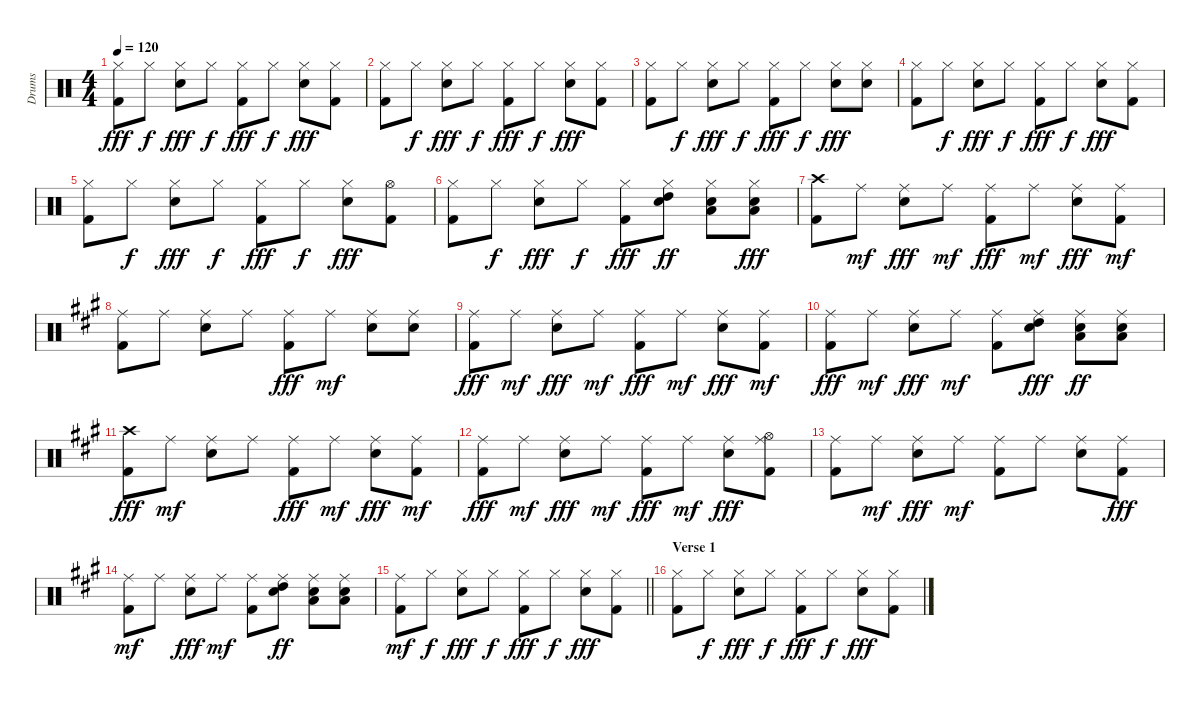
\track ("Drums" "Drums") {instrument percussion}
\staff {score}
\articulation defaults
\ts (4 4)
\tempo 120
\clef neutral
\ks c
("Kick (hit) 2" "Hi-Hat (closed)").8{dy fff} "Hi-Hat (closed)".8{dy f} ("Snare (hit) 2" "Hi-Hat (closed)").8{dy fff} "Hi-Hat (closed)".8{dy f} ("Hi-Hat (closed)" "Kick (hit) 2").8{dy fff} "Hi-Hat (closed)".8{dy f} ("Snare (hit) 2" "Hi-Hat (closed)").8{dy fff} ("Kick (hit) 2" "Hi-Hat (closed)").8 |
("Kick (hit) 2" "Hi-Hat (closed)").8 "Hi-Hat (closed)".8{dy f} ("Hi-Hat (closed)" "Snare (hit) 2").8{dy fff} "Hi-Hat (closed)".8{dy f} ("Kick (hit) 2" "Hi-Hat (closed)").8{dy fff} "Hi-Hat (closed)".8{dy f} ("Hi-Hat (closed)" "Snare (hit) 2").8{dy fff} ("Kick (hit) 2" "Hi-Hat (closed)").8 |
("Kick (hit) 2" "Hi-Hat (closed)").8 "Hi-Hat (closed)".8{dy f} ("Hi-Hat (closed)" "Snare (hit) 2").8{dy fff} "Hi-Hat (closed)".8{dy f} ("Kick (hit) 2" "Hi-Hat (closed)").8{dy fff} "Hi-Hat (closed)".8{dy f} ("Snare (hit) 2" "Hi-Hat (closed)").8{dy fff} ("Hi-Hat (closed)" "Snare (hit) 2").8 |
("Kick (hit) 2" "Hi-Hat (closed)").8 "Hi-Hat (closed)".8{dy f} ("Snare (hit) 2" "Hi-Hat (closed)").8{dy fff} "Hi-Hat (closed)".8{dy f} ("Kick (hit) 2" "Hi-Hat (closed)").8{dy fff} "Hi-Hat (closed)".8{dy f} ("Snare (hit) 2" "Hi-Hat (closed)").8{dy fff} ("Hi-Hat (closed)" "Kick (hit) 2").8 |
("Kick (hit) 2" "Hi-Hat (closed)").8 "Hi-Hat (closed)".8{dy f} ("Snare (hit) 2" "Hi-Hat (closed)").8{dy fff} "Hi-Hat (closed)".8{dy f} ("Hi-Hat (closed)" "Kick (hit) 2").8{dy fff} "Hi-Hat (closed)".8{dy f} ("Snare (hit) 2" "Hi-Hat (closed)").8{dy fff} ("Kick (hit) 2" "Hi-Hat (open)").8 |
("Kick (hit) 2" "Hi-Hat (closed)").8 "Hi-Hat (closed)".8{dy f} ("Hi-Hat (closed)" "Snare (hit) 2").8{dy fff} "Hi-Hat (closed)".8{dy f} ("Hi-Hat (closed)" "Kick (hit) 2").8{dy fff} ("Snare (hit) 2" "Hi-Hat (closed)" "High Tom (hit)").8{dy ff} ("Hi-Hat (closed)" "Snare (hit) 2" "Low Tom (hit)").8 ("Low Floor Tom (hit)" "Snare (hit) 2" "Hi-Hat (closed)").8{dy fff} |
("Crash high (hit)" "Kick (hit) 2").8 "Ride (middle)".8{dy mf} ("Ride (middle)" "Snare (hit) 2").8{dy fff} "Ride (middle)".8{dy mf} ("Ride (middle)" "Kick (hit) 2").8{dy fff} "Ride (middle)".8{dy mf} ("Ride (middle)" "Snare (hit) 2").8{dy fff} ("Kick (hit) 2" "Ride (middle)").8{dy mf} |
\ks a
("Kick (hit) 2" "Ride (middle)").8 "Ride (middle)".8 ("Snare (hit) 2" "Ride (middle)").8 "Ride (middle)".8 ("Ride (middle)" "Kick (hit) 2").8{dy fff} "Ride (middle)".8{dy mf} ("Snare (hit) 2" "Ride (middle)").8 ("Snare (hit) 2" "Ride (middle)").8 |
("Ride (middle)" "Kick (hit) 2").8{dy fff} "Ride (middle)".8{dy mf} ("Ride (middle)" "Snare (hit) 2").8{dy fff} "Ride (middle)".8{dy mf} ("Ride (middle)" "Kick (hit) 2").8{dy fff} "Ride (middle)".8{dy mf} ("Ride (middle)" "Snare (hit) 2").8{dy fff} ("Kick (hit) 2" "Ride (middle)").8{dy mf} |
("Ride (middle)" "Kick (hit) 2").8{dy fff} "Ride (middle)".8{dy mf} ("Ride (middle)" "Snare (hit) 2").8{dy fff} "Ride (middle)".8{dy mf} ("Kick (hit) 2" "Ride (middle)").8 ("Ride (middle)" "High Tom (hit)" "Snare (hit) 2").8{dy fff} ("Snare (hit) 2" "Ride (middle)" "Low Tom (hit)").8{dy ff} ("Snare (hit) 2" "Ride (middle)" "Low Floor Tom (hit)").8 |
("Kick (hit) 2" "Crash high (hit)").8{dy fff} "Ride (middle)".8{dy mf} ("Snare (hit) 2" "Ride (middle)").8 "Ride (middle)".8 ("Ride (middle)" "Kick (hit) 2").8{dy fff} "Ride (middle)".8{dy mf} ("Ride (middle)" "Snare (hit) 2").8{dy fff} ("Kick (hit) 2" "Ride (middle)").8{dy mf} |
("Ride (middle)" "Kick (hit) 2").8{dy fff} "Ride (middle)".8{dy mf} ("Ride (middle)" "Snare (hit) 2").8{dy fff} "Ride (middle)".8{dy mf} ("Ride (middle)" "Kick (hit) 2").8{dy fff} "Ride (middle)".8{dy mf} ("Ride (middle)" "Snare (hit) 2").8{dy fff} ("Ride (middle)" "Hi-Hat (open)" "Kick (hit) 2").8 |
("Ride (middle)" "Kick (hit) 2").8 "Ride (middle)".8{dy mf} ("Ride (middle)" "Snare (hit) 2").8{dy fff} "Ride (middle)".8{dy mf} ("Kick (hit) 2" "Ride (middle)").8 "Ride (middle)".8 ("Snare (hit) 2" "Ride (middle)").8 ("Ride (middle)" "Kick (hit) 2").8{dy fff} |
("Kick (hit) 2" "Ride (middle)").8{dy mf} "Ride (middle)".8 ("Ride (middle)" "Snare (hit) 2").8{dy fff} "Ride (middle)".8{dy mf} ("Kick (hit) 2" "Ride (middle)").8 ("Snare (hit) 2" "Ride (middle)" "High Tom (hit)").8{dy ff} ("Ride (middle)" "Snare (hit) 2" "Low Tom (hit)").8 ("Ride (middle)" "Snare (hit) 2" "Low Floor Tom (hit)").8 |
\barLineRight lightlight
("Kick (hit) 2" "Ride (middle)").8{dy mf} "Hi-Hat (closed)".8{dy f} ("Hi-Hat (closed)" "Snare (hit) 2").8{dy fff} "Hi-Hat (closed)".8{dy f} ("Hi-Hat (closed)" "Kick (hit) 2").8{dy fff} "Hi-Hat (closed)".8{dy f} ("Hi-Hat (closed)" "Snare (hit) 2").8{dy fff} ("Hi-Hat (closed)" "Kick (hit) 2").8 |
\section ("" "Verse 1")
("Kick (hit) 2" "Hi-Hat (closed)").8 "Hi-Hat (closed)".8{dy f} ("Snare (hit) 2" "Hi-Hat (closed)").8{dy fff} "Hi-Hat (closed)".8{dy f} ("Hi-Hat (closed)" "Kick (hit) 2").8{dy fff} "Hi-Hat (closed)".8{dy f} ("Hi-Hat (closed)" "Snare (hit) 2").8{dy fff} ("Kick (hit) 2" "Hi-Hat (closed)").8
